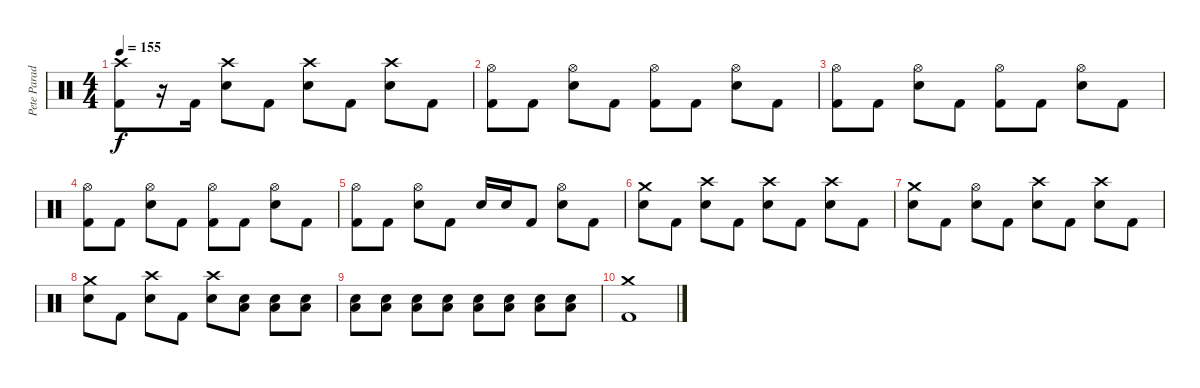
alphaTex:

\track ("Pete Parada - Drums" "Pete Parad") {instrument percussion}
\staff {score}
\articulation defaults
\ts (4 4)
\tempo 155
\clef neutral
\ks c
("Crash high (hit)" "Kick (hit) 2").8{dy f} r.16 "Kick (hit) 2".16 ("Crash high (hit)" "Electric Snare (hit)").8 "Kick (hit) 2".8 ("Crash high (hit)" "Electric Snare (hit)").8 "Kick (hit) 2".8 ("Crash high (hit)" "Electric Snare (hit)").8 "Kick (hit) 2".8 |
("Hi-Hat (open)" "Kick (hit) 2").8 "Kick (hit) 2".8 ("Hi-Hat (open)" "Electric Snare (hit)").8 "Kick (hit) 2".8 ("Hi-Hat (open)" "Kick (hit) 2").8 "Kick (hit) 2".8 ("Hi-Hat (open)" "Electric Snare (hit)").8 "Kick (hit) 2".8 |
("Hi-Hat (open)" "Kick (hit) 2").8 "Kick (hit) 2".8 ("Hi-Hat (open)" "Electric Snare (hit)").8 "Kick (hit) 2".8 ("Hi-Hat (open)" "Kick (hit) 2").8 "Kick (hit) 2".8 ("Hi-Hat (open)" "Electric Snare (hit)").8 "Kick (hit) 2".8 |
("Hi-Hat (open)" "Kick (hit) 2").8 "Kick (hit) 2".8 ("Hi-Hat (open)" "Electric Snare (hit)").8 "Kick (hit) 2".8 ("Hi-Hat (open)" "Kick (hit) 2").8 "Kick (hit) 2".8 ("Hi-Hat (open)" "Electric Snare (hit)").8 "Kick (hit) 2".8 |
("Hi-Hat (open)" "Kick (hit) 2").8 "Kick (hit) 2".8 ("Hi-Hat (open)" "Electric Snare (hit)").8 "Kick (hit) 2".8 "Electric Snare (hit)".16 "Electric Snare (hit)".16 "Kick (hit) 2".8 ("Hi-Hat (open)" "Electric Snare (hit)").8 "Kick (hit) 2".8 |
("Crash medium (hit)" "Electric Snare (hit)").8 "Kick (hit) 2".8 ("Crash high (hit)" "Electric Snare (hit)").8 "Kick (hit) 2".8 ("Crash high (hit)" "Electric Snare (hit)").8 "Kick (hit) 2".8 ("Crash high (hit)" "Electric Snare (hit)").8 "Kick (hit) 2".8 |
("Crash medium (hit)" "Electric Snare (hit)").8 "Kick (hit) 2".8 ("Hi-Hat (open)" "Electric Snare (hit)").8 "Kick (hit) 2".8 ("Crash high (hit)" "Electric Snare (hit)").8 "Kick (hit) 2".8 ("Crash high (hit)" "Electric Snare (hit)").8 "Kick (hit) 2".8 |
("Crash medium (hit)" "Electric Snare (hit)").8 "Kick (hit) 2".8 ("Crash high (hit)" "Electric Snare (hit)").8 "Kick (hit) 2".8 ("Crash high (hit)" "Electric Snare (hit)").8 ("Electric Snare (hit)" "Low Floor Tom (hit)").8 ("Electric Snare (hit)" "Low Floor Tom (hit)").8 ("Electric Snare (hit)" "Low Floor Tom (hit)").8 |
("Electric Snare (hit)" "Low Floor Tom (hit)").8 ("Electric Snare (hit)" "Low Floor Tom (hit)").8 ("Electric Snare (hit)" "Low Floor Tom (hit)").8 ("Electric Snare (hit)" "Low Floor Tom (hit)").8 ("Electric Snare (hit)" "Low Floor Tom (hit)").8 ("Electric Snare (hit)" "Low Floor Tom (hit)").8 ("Electric Snare (hit)" "Low Floor Tom (hit)").8 ("Electric Snare (hit)" "Low Floor Tom (hit)").8 |
("Crash medium (hit)" "Kick (hit) 2").1
